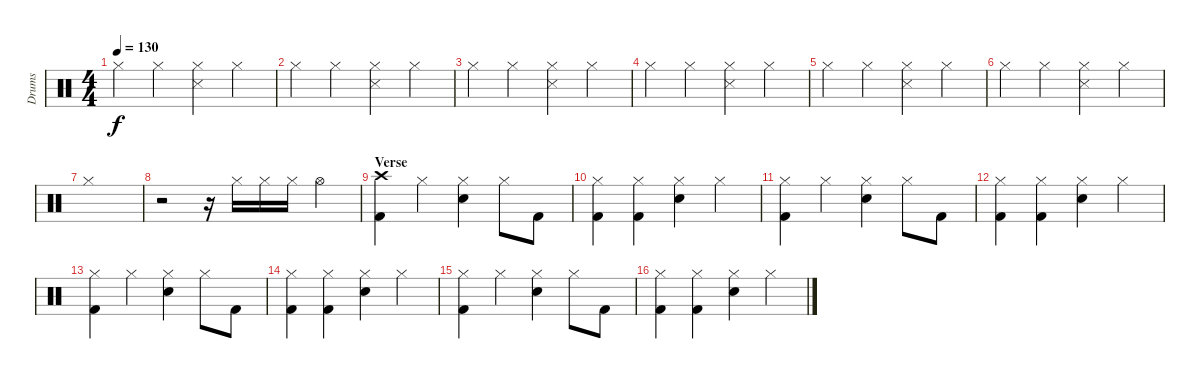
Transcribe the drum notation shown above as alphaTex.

\track ("Drums" "Drums") {instrument percussion}
\staff {score}
\articulation defaults
\ts (4 4)
\tempo 130
\clef neutral
\ks c "Hi-Hat (closed)".4{dy f} "Hi-Hat (closed)".4
("Hi-Hat (closed)" "Snare (side stick) 3").4 "Hi-Hat (closed)".4 |
"Hi-Hat (closed)".4 "Hi-Hat (closed)".4 ("Hi-Hat (closed)" "Snare (side stick) 3").4 "Hi-Hat (closed)".4 |
"Hi-Hat (closed)".4 "Hi-Hat (closed)".4 ("Hi-Hat (closed)" "Snare (side stick) 3").4 "Hi-Hat (closed)".4 |
"Hi-Hat (closed)".4 "Hi-Hat (closed)".4 ("Hi-Hat (closed)" "Snare (side stick) 3").4 "Hi-Hat (closed)".4 |
"Hi-Hat (closed)".4 "Hi-Hat (closed)".4 ("Hi-Hat (closed)" "Snare (side stick) 3").4 "Hi-Hat (closed)".4 |
"Hi-Hat (closed)".4 "Hi-Hat (closed)".4 ("Hi-Hat (closed)" "Snare (side stick) 3").4 "Hi-Hat (closed)".4 |
"Hi-Hat (closed)".1 |
r.2 r.16 "Hi-Hat (closed)".16 "Hi-Hat (closed)".16 "Hi-Hat (closed)".16 "Hi-Hat (open)".4 |
\section ("" "Verse")
("Crash high (hit)" "Kick (hit) 2").4 "Hi-Hat (closed)".4 ("Hi-Hat (closed)" "Snare (hit) 2").4 "Hi-Hat (closed)".8 "Kick (hit) 2".8 |
("Hi-Hat (closed)" "Kick (hit) 2").4 ("Hi-Hat (closed)" "Kick (hit) 2").4 ("Hi-Hat (closed)" "Snare (hit) 2").4 "Hi-Hat (closed)".4 |
("Hi-Hat (closed)" "Kick (hit) 2").4 "Hi-Hat (closed)".4 ("Hi-Hat (closed)" "Snare (hit) 2").4 "Hi-Hat (closed)".8 "Kick (hit) 2".8 |
("Hi-Hat (closed)" "Kick (hit) 2").4 ("Hi-Hat (closed)" "Kick (hit) 2").4 ("Hi-Hat (closed)" "Snare (hit) 2").4 "Hi-Hat (closed)".4 |
("Hi-Hat (closed)" "Kick (hit) 2").4 "Hi-Hat (closed)".4 ("Hi-Hat (closed)" "Snare (hit) 2").4 "Hi-Hat (closed)".8 "Kick (hit) 2".8 |
("Hi-Hat (closed)" "Kick (hit) 2").4 ("Hi-Hat (closed)" "Kick (hit) 2").4 ("Hi-Hat (closed)" "Snare (hit) 2").4 "Hi-Hat (closed)".4 |
("Hi-Hat (closed)" "Kick (hit) 2").4 "Hi-Hat (closed)".4 ("Hi-Hat (closed)" "Snare (hit) 2").4 "Hi-Hat (closed)".8 "Kick (hit) 2".8 |
("Hi-Hat (closed)" "Kick (hit) 2").4 ("Hi-Hat (closed)" "Kick (hit) 2").4 ("Hi-Hat (closed)" "Snare (hit) 2").4 "Hi-Hat (closed)".4
